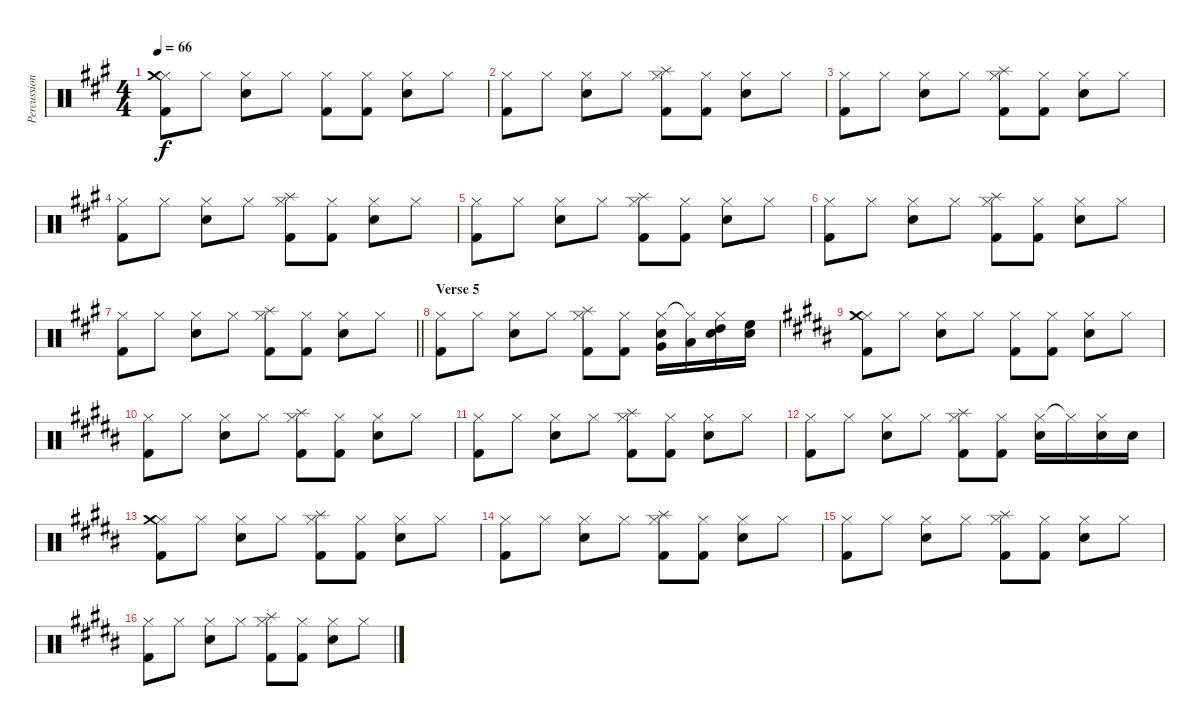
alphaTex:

\track ("Percussion" "Percussion") {instrument percussion}
\staff {score}
\articulation defaults
\ts (4 4)
\tempo 66
\clef neutral
\ks a
("Hi-Hat (closed)" "Crash medium (hit)" "Kick (hit) 2").8{dy f} "Hi-Hat (closed)".8 ("Hi-Hat (closed)" "Snare (hit) 2").8 "Hi-Hat (closed)".8 ("Hi-Hat (closed)" "Kick (hit) 2").8 ("Hi-Hat (closed)" "Kick (hit) 2").8 ("Hi-Hat (closed)" "Snare (hit) 2").8 "Hi-Hat (closed)".8 |
("Hi-Hat (closed)" "Kick (hit) 2").8 "Hi-Hat (closed)".8 ("Hi-Hat (closed)" "Snare (hit) 2").8 "Hi-Hat (closed)".8 ("Hi-Hat (closed)" "Splash (hit)" "Kick (hit) 2").8 ("Hi-Hat (closed)" "Kick (hit) 2").8 ("Hi-Hat (closed)" "Snare (hit) 2").8 "Hi-Hat (closed)".8 |
("Hi-Hat (closed)" "Kick (hit) 2").8 "Hi-Hat (closed)".8 ("Hi-Hat (closed)" "Snare (hit) 2").8 "Hi-Hat (closed)".8 ("Hi-Hat (closed)" "Splash (hit)" "Kick (hit) 2").8 ("Hi-Hat (closed)" "Kick (hit) 2").8 ("Hi-Hat (closed)" "Snare (hit) 2").8 "Hi-Hat (closed)".8 |
("Hi-Hat (closed)" "Kick (hit) 2").8 "Hi-Hat (closed)".8 ("Hi-Hat (closed)" "Snare (hit) 2").8 "Hi-Hat (closed)".8 ("Hi-Hat (closed)" "Splash (hit)" "Kick (hit) 2").8 ("Hi-Hat (closed)" "Kick (hit) 2").8 ("Hi-Hat (closed)" "Snare (hit) 2").8 "Hi-Hat (closed)".8 |
("Hi-Hat (closed)" "Kick (hit) 2").8 "Hi-Hat (closed)".8 ("Hi-Hat (closed)" "Snare (hit) 2").8 "Hi-Hat (closed)".8 ("Hi-Hat (closed)" "Splash (hit)" "Kick (hit) 2").8 ("Hi-Hat (closed)" "Kick (hit) 2").8 ("Hi-Hat (closed)" "Snare (hit) 2").8 "Hi-Hat (closed)".8 |
("Hi-Hat (closed)" "Kick (hit) 2").8 "Hi-Hat (closed)".8 ("Hi-Hat (closed)" "Snare (hit) 2").8 "Hi-Hat (closed)".8 ("Hi-Hat (closed)" "Splash (hit)" "Kick (hit) 2").8 ("Hi-Hat (closed)" "Kick (hit) 2").8 ("Hi-Hat (closed)" "Snare (hit) 2").8 "Hi-Hat (closed)".8 |
\barLineRight lightlight
("Hi-Hat (closed)" "Kick (hit) 2").8 "Hi-Hat (closed)".8 ("Hi-Hat (closed)" "Snare (hit) 2").8 "Hi-Hat (closed)".8 ("Hi-Hat (closed)" "Splash (hit)" "Kick (hit) 2").8 ("Hi-Hat (closed)" "Kick (hit) 2").8 ("Hi-Hat (closed)" "Snare (hit) 2").8 "Hi-Hat (closed)".8 |
\section ("" "Verse 5")
("Hi-Hat (closed)" "Kick (hit) 2").8 "Hi-Hat (closed)".8 ("Hi-Hat (closed)" "Snare (hit) 2").8 "Hi-Hat (closed)".8 ("Hi-Hat (closed)" "Splash (hit)" "Kick (hit) 2").8 ("Hi-Hat (closed)" "Kick (hit) 2").8 ("Hi-Hat (closed)" "Very Low Tom (hit)" "Snare (hit) 2").16 ("Hi-Hat (closed)"{t} "Low Tom (hit)").16 ("Hi-Hat (closed)" "High Tom (hit)" "Snare (hit) 2").16 ("High Floor Tom (hit)" "Snare (hit) 2").16 |
\ks b
("Hi-Hat (closed)" "Crash medium (hit)" "Kick (hit) 2").8 "Hi-Hat (closed)".8 ("Hi-Hat (closed)" "Snare (hit) 2").8 "Hi-Hat (closed)".8 ("Hi-Hat (closed)" "Kick (hit) 2").8 ("Hi-Hat (closed)" "Kick (hit) 2").8 ("Hi-Hat (closed)" "Snare (hit) 2").8 "Hi-Hat (closed)".8 |
("Hi-Hat (closed)" "Kick (hit) 2").8 "Hi-Hat (closed)".8 ("Hi-Hat (closed)" "Snare (hit) 2").8 "Hi-Hat (closed)".8 ("Hi-Hat (closed)" "Splash (hit)" "Kick (hit) 2").8 ("Hi-Hat (closed)" "Kick (hit) 2").8 ("Hi-Hat (closed)" "Snare (hit) 2").8 "Hi-Hat (closed)".8 |
("Hi-Hat (closed)" "Kick (hit) 2").8 "Hi-Hat (closed)".8 ("Hi-Hat (closed)" "Snare (hit) 2").8 "Hi-Hat (closed)".8 ("Hi-Hat (closed)" "Splash (hit)" "Kick (hit) 2").8 ("Hi-Hat (closed)" "Kick (hit) 2").8 ("Hi-Hat (closed)" "Snare (hit) 2").8 "Hi-Hat (closed)".8 |
("Hi-Hat (closed)" "Kick (hit) 2").8 "Hi-Hat (closed)".8 ("Hi-Hat (closed)" "Snare (hit) 2").8 "Hi-Hat (closed)".8 ("Hi-Hat (closed)" "Splash (hit)" "Kick (hit) 2").8 ("Hi-Hat (closed)" "Kick (hit) 2").8 ("Hi-Hat (closed)" "Snare (hit) 2").16 "Hi-Hat (closed)"{t}.16 ("Hi-Hat (closed)" "Snare (hit) 2").16 "Snare (hit) 2".16 |
("Hi-Hat (closed)" "Crash medium (hit)" "Kick (hit) 2").8 "Hi-Hat (closed)".8 ("Hi-Hat (closed)" "Snare (hit) 2").8 "Hi-Hat (closed)".8 ("Hi-Hat (closed)" "Splash (hit)" "Kick (hit) 2").8 ("Hi-Hat (closed)" "Kick (hit) 2").8 ("Hi-Hat (closed)" "Snare (hit) 2").8 "Hi-Hat (closed)".8 |
("Hi-Hat (closed)" "Kick (hit) 2").8 "Hi-Hat (closed)".8 ("Hi-Hat (closed)" "Snare (hit) 2").8 "Hi-Hat (closed)".8 ("Hi-Hat (closed)" "Splash (hit)" "Kick (hit) 2").8 ("Hi-Hat (closed)" "Kick (hit) 2").8 ("Hi-Hat (closed)" "Snare (hit) 2").8 "Hi-Hat (closed)".8 |
("Hi-Hat (closed)" "Kick (hit) 2").8 "Hi-Hat (closed)".8 ("Hi-Hat (closed)" "Snare (hit) 2").8 "Hi-Hat (closed)".8 ("Hi-Hat (closed)" "Splash (hit)" "Kick (hit) 2").8 ("Hi-Hat (closed)" "Kick (hit) 2").8 ("Hi-Hat (closed)" "Snare (hit) 2").8 "Hi-Hat (closed)".8 |
("Hi-Hat (closed)" "Kick (hit) 2").8 "Hi-Hat (closed)".8 ("Hi-Hat (closed)" "Snare (hit) 2").8 "Hi-Hat (closed)".8 ("Hi-Hat (closed)" "Splash (hit)" "Kick (hit) 2").8 ("Hi-Hat (closed)" "Kick (hit) 2").8 ("Hi-Hat (closed)" "Snare (hit) 2").8 "Hi-Hat (closed)".8
